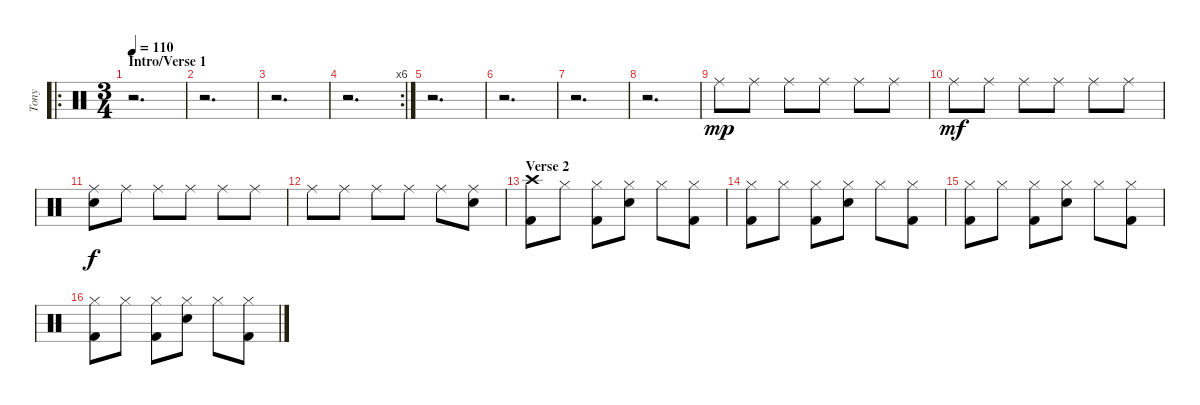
\track ("Tony" "Tony") {instrument percussion}
\staff {score}
\articulation defaults
\ro
\ts (3 4)
\section ("" "Intro/Verse 1")
\tempo 110
\clef neutral
\ks c
r.2{d dy mp} |
r.2{d} |
r.2{d} |
\rc 6
r.2{d} |
r.2{d} |
r.2{d} |
r.2{d} |
r.2{d} |
"Ride (middle)".8 "Ride (middle)".8 "Ride (middle)".8 "Ride (middle)".8 "Ride (middle)".8 "Ride (middle)".8 |
"Ride (middle)".8{dy mf} "Ride (middle)".8 "Ride (middle)".8 "Ride (middle)".8 "Ride (middle)".8 "Ride (middle)".8 |
("Ride (middle)" "Snare (hit) 2").8{dy f} "Ride (middle)".8 "Ride (middle)".8 "Ride (middle)".8 "Ride (middle)".8 "Ride (middle)".8 |
"Ride (middle)".8 "Ride (middle)".8 "Ride (middle)".8 "Ride (middle)".8 "Ride (middle)".8 ("Ride (middle)" "Snare (hit) 2").8 |
\section ("" "Verse 2")
("Kick (hit) 2" "Crash high (hit)").8 "Hi-Hat (closed)".8 ("Kick (hit) 2" "Hi-Hat (closed)").8 ("Snare (hit) 2" "Hi-Hat (closed)").8 "Hi-Hat (closed)".8 ("Kick (hit) 2" "Hi-Hat (closed)").8 |
("Kick (hit) 2" "Hi-Hat (closed)").8 "Hi-Hat (closed)".8 ("Kick (hit) 2" "Hi-Hat (closed)").8 ("Snare (hit) 2" "Hi-Hat (closed)").8 "Hi-Hat (closed)".8 ("Kick (hit) 2" "Hi-Hat (closed)").8 |
("Kick (hit) 2" "Hi-Hat (closed)").8 "Hi-Hat (closed)".8 ("Kick (hit) 2" "Hi-Hat (closed)").8 ("Snare (hit) 2" "Hi-Hat (closed)").8 "Hi-Hat (closed)".8 ("Kick (hit) 2" "Hi-Hat (closed)").8 |
("Kick (hit) 2" "Hi-Hat (closed)").8 "Hi-Hat (closed)".8 ("Kick (hit) 2" "Hi-Hat (closed)").8 ("Snare (hit) 2" "Hi-Hat (closed)").8 "Hi-Hat (closed)".8 ("Kick (hit) 2" "Hi-Hat (closed)").8
